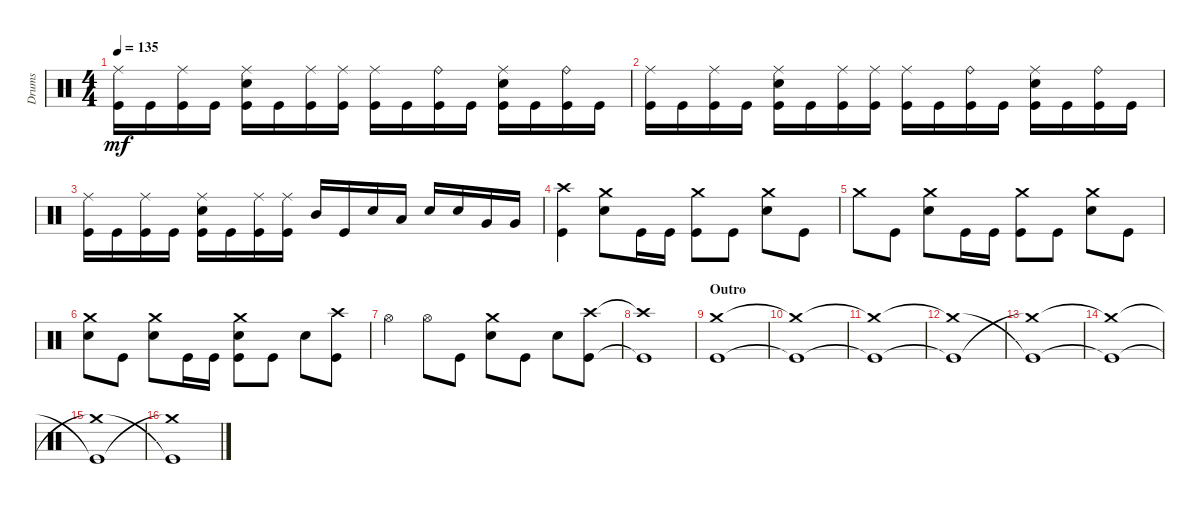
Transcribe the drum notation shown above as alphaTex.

\track ("Drums" "Drums") {instrument percussion}
\staff {score}
\articulation defaults
\ts (4 4)
\tempo 135
\clef neutral
\ks aminor
("Ride (middle)" "Kick (hit)").16{dy mf} "Kick (hit)".16 ("Kick (hit)" "Ride (middle)").16 "Kick (hit)".16 ("Ride (middle)" "Snare (hit) 2" "Kick (hit)").16 "Kick (hit)".16 ("Kick (hit)" "Ride (middle)").16 ("Ride (middle)" "Kick (hit)").16 ("Ride (middle)" "Kick (hit)").16 "Kick (hit)".16 ("Ride (bell)" "Kick (hit)").16 "Kick (hit)".16 ("Snare (hit) 2" "Kick (hit)" "Ride (middle)").16 "Kick (hit)".16 ("Ride (bell)" "Kick (hit)").16 "Kick (hit)".16 |
("Ride (middle)" "Kick (hit)").16 "Kick (hit)".16 ("Kick (hit)" "Ride (middle)").16 "Kick (hit)".16 ("Kick (hit)" "Ride (middle)" "Snare (hit) 2").16 "Kick (hit)".16 ("Kick (hit)" "Ride (middle)").16 ("Kick (hit)" "Ride (middle)").16 ("Kick (hit)" "Ride (middle)").16 "Kick (hit)".16 ("Kick (hit)" "Ride (bell)").16 "Kick (hit)".16 ("Ride (middle)" "Kick (hit)" "Snare (hit) 2").16 "Kick (hit)".16 ("Kick (hit)" "Ride (bell)").16 "Kick (hit)".16 |
("Ride (middle)" "Kick (hit)").16 "Kick (hit)".16 ("Kick (hit)" "Ride (middle)").16 "Kick (hit)".16 ("Kick (hit)" "Ride (middle)" "Snare (hit) 2").16 "Kick (hit)".16 ("Ride (middle)" "Kick (hit)").16 ("Ride (middle)" "Kick (hit)").16 "Mid Tom (hit)".16 "Kick (hit)".16 "Snare (hit) 2".16 "Low Tom (hit)".16 "Snare (hit) 2".16 "Snare (hit) 2".16 "Very Low Tom (hit)".16 "Very Low Tom (hit)".16 |
("Kick (hit)" "Crash high (hit)").4 ("Crash medium (hit)" "Snare (hit) 2").8 "Kick (hit)".16 "Kick (hit)".16 ("Crash medium (hit)" "Kick (hit)").8 "Kick (hit)".8 ("Crash medium (hit)" "Snare (hit) 2").8 "Kick (hit)".8 |
"Crash medium (hit)".8 "Kick (hit)".8 ("Crash medium (hit)" "Snare (hit) 2").8 "Kick (hit)".16 "Kick (hit)".16 ("Kick (hit)" "Crash medium (hit)").8 "Kick (hit)".8 ("Crash medium (hit)" "Snare (hit) 2").8 "Kick (hit)".8 |
("Snare (hit) 2" "Crash medium (hit)").8 "Kick (hit)".8 ("Snare (hit) 2" "Crash medium (hit)").8 "Kick (hit)".16 "Kick (hit)".16 ("Kick (hit)" "Snare (hit) 2" "Crash medium (hit)").8 "Kick (hit)".8 "Snare (hit) 2".8 ("Crash high (hit)" "Kick (hit)").8 |
"Hi-Hat (open)".4 "Hi-Hat (open)".8 "Kick (hit)".8 ("Snare (hit) 2" "Crash medium (hit)").8 "Kick (hit)".8 "Snare (hit) 2".8 ("Crash high (hit)" "Kick (hit)").8 |
("Crash high (hit)"{t} "Kick (hit)"{t}).1 |
\section ("" "Outro")
("Kick (hit)" "Crash medium (hit)").1 |
("Kick (hit)"{t} "Crash medium (hit)"{t}).1 |
("Kick (hit)"{t} "Crash medium (hit)"{t}).1 |
("Kick (hit)"{t} "Crash medium (hit)"{t}).1 |
("Crash medium (hit)"{t} "Kick (hit)"{t}).1 |
("Crash medium (hit)"{t} "Kick (hit)"{t}).1 |
("Kick (hit)"{t} "Crash medium (hit)"{t}).1 |
("Crash medium (hit)"{t} "Kick (hit)"{t}).1
